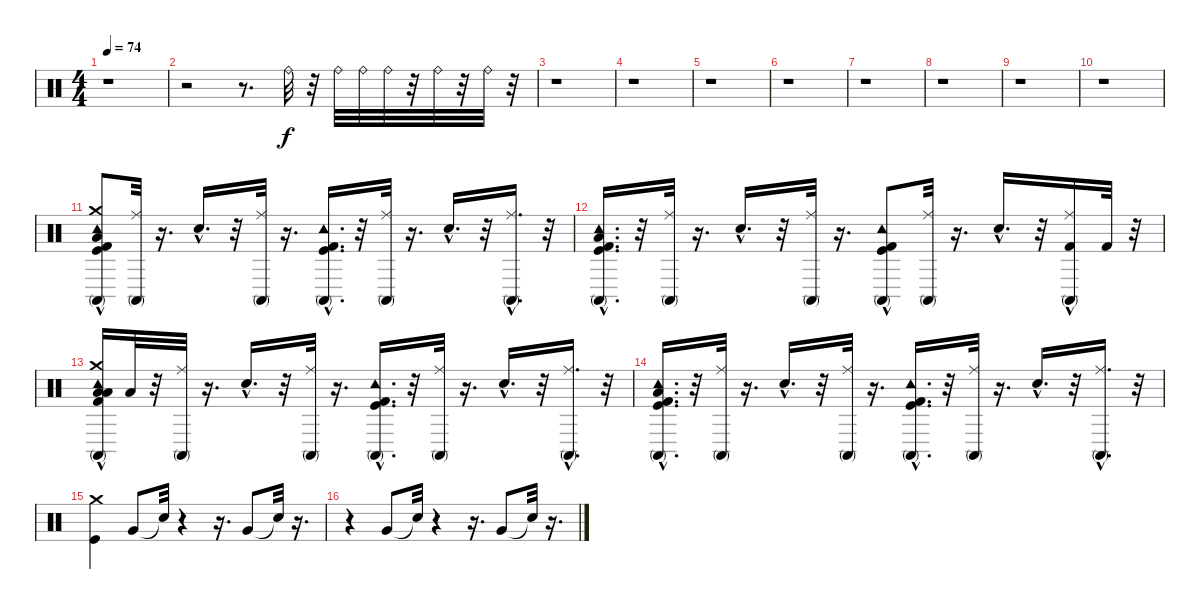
\track "" {instrument percussion}
\staff {score}
\articulation defaults
\ts (4 4)
\tempo 74
\clef neutral
\ks c
r.1{dy f} |
r.2 r.8{d} "Ride (bell)".32 r.32 "Ride (bell)".32 "Ride (bell)".32 "Ride (bell)".32 r.32 "Ride (bell)".32 r.32 "Ride (bell)".32 r.32 |
r.1 |
r.1 |
r.1 |
r.1 |
r.1 |
r.1 |
r.1 |
r.1 |
("Crash medium (hit)" "Low Floor Tom (hit)" "Conga high (mute)" "Tambourine (hit)"{hac} "Kick (hit) 2"{hac} "Kick (hit)"{hac}).8 ("Conga high (mute)" "Ride (middle)").32 r.16{d} "Snare (hit) 2"{hac}.16{d} r.32 ("Conga high (mute)" "Ride (middle)").32 r.16{d} ("Conga high (mute)" "Tambourine (hit)"{hac} "Kick (hit) 2"{hac} "Kick (hit)"{hac}).16{d} r.32 ("Conga high (mute)" "Ride (middle)").32 r.16{d} "Snare (hit) 2"{hac}.16{d} r.32 ("Conga high (mute)"{hac} "Ride (middle)").16{d} r.32 |
("Low Floor Tom (hit)" "Conga high (mute)" "Tambourine (hit)"{hac} "Kick (hit) 2"{hac} "Kick (hit)"{hac}).16{d} r.32 ("Conga high (mute)" "Ride (middle)").32 r.16{d} "Snare (hit) 2"{hac}.16{d} r.32 ("Conga high (mute)" "Ride (middle)").32 r.16{d} ("Conga high (mute)" "Tambourine (hit)"{hac} "Kick (hit) 2"{hac} "Kick (hit)").8 ("Conga high (mute)" "Ride (middle)").32 r.16{d} "Snare (hit) 2"{hac}.16{d} r.32 ("Kick (hit) 2" "Conga high (mute)"{hac} "Ride (middle)").16 "Kick (hit) 2".32 r.32 |
("Low Tom (hit)" "Crash medium (hit)" "Low Floor Tom (hit)" "Conga high (mute)" "Tambourine (hit)"{hac} "Kick (hit) 2"{hac}).16 "Low Floor Tom (hit)".32 r.32 ("Conga high (mute)" "Ride (middle)").32 r.16{d} "Snare (hit) 2"{hac}.16{d} r.32 ("Conga high (mute)" "Ride (middle)").32 r.16{d} ("Conga high (mute)" "Tambourine (hit)"{hac} "Kick (hit) 2"{hac} "Kick (hit)"{hac}).16{d} r.32 ("Conga high (mute)" "Ride (middle)").32 r.16{d} "Snare (hit) 2"{hac}.16{d} r.32 ("Conga high (mute)"{hac} "Ride (middle)").16{d} r.32 |
("Low Floor Tom (hit)" "Conga high (mute)" "Tambourine (hit)"{hac} "Kick (hit) 2"{hac} "Kick (hit)"{hac}).16{d} r.32 ("Conga high (mute)" "Ride (middle)").32 r.16{d} "Snare (hit) 2"{hac}.16{d} r.32 ("Conga high (mute)" "Ride (middle)").32 r.16{d} ("Conga high (mute)" "Tambourine (hit)"{hac} "Kick (hit) 2"{hac} "Kick (hit)"{hac}).16{d} r.32 ("Conga high (mute)" "Ride (middle)").32 r.16{d} "Snare (hit) 2"{hac}.16{d} r.32 ("Conga high (mute)"{hac} "Ride (middle)").16{d} r.32 |
("Kick (hit)" "Crash medium (hit)").4 "Very Low Tom (hit)".8 "Snare (hit)"{t}.32 r.4 r.16{d} "Very Low Tom (hit)".8 "Snare (hit)"{t}.32 r.16{d} |
r.4 "Very Low Tom (hit)".8 "Snare (hit)"{t}.32 r.4 r.16{d} "Very Low Tom (hit)".8 "Snare (hit)"{t}.32 r.16{d}
